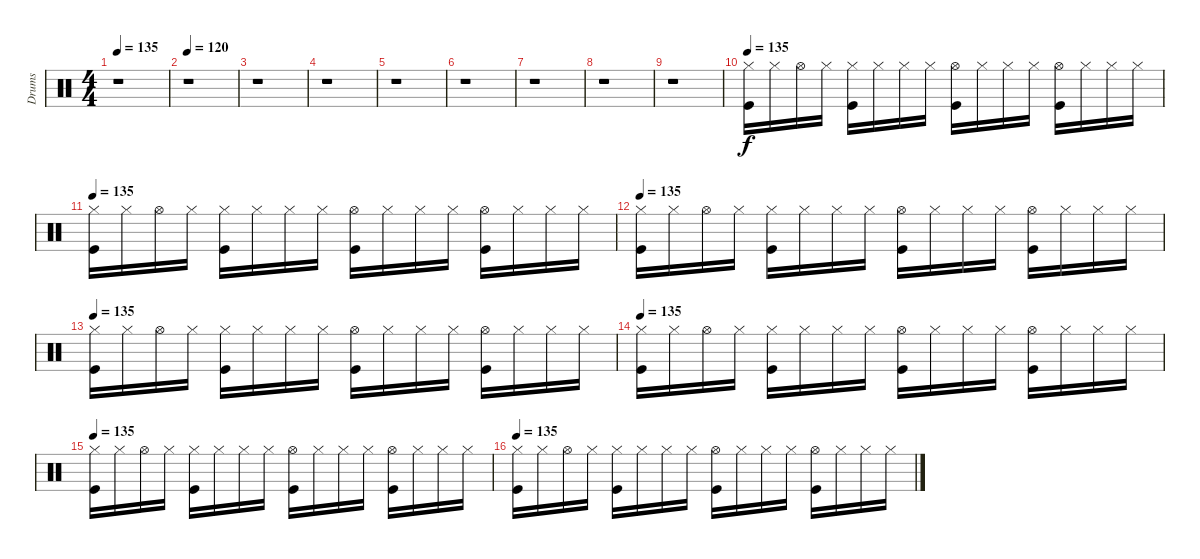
\track ("Drums" "Drums") {instrument percussion}
\staff {score}
\articulation defaults
\ts (4 4)
\tempo 135
\clef neutral
\ks c
r.1{dy f} |
\tempo 120
r.1 |
r.1 |
r.1 |
r.1 |
r.1 |
r.1 |
r.1 |
r.1 |
\tempo 135
("Hi-Hat (closed)" "Kick (hit)").16 "Hi-Hat (closed)".16 "Hi-Hat (open)".16 "Hi-Hat (closed)".16 ("Hi-Hat (closed)" "Kick (hit)").16 "Hi-Hat (closed)".16 "Hi-Hat (closed)".16 "Hi-Hat (closed)".16 ("Hi-Hat (open)" "Kick (hit)").16 "Hi-Hat (closed)".16 "Hi-Hat (closed)".16 "Hi-Hat (closed)".16 ("Hi-Hat (open)" "Kick (hit)").16 "Hi-Hat (closed)".16 "Hi-Hat (closed)".16 "Hi-Hat (closed)".16 |
\tempo 135
("Hi-Hat (closed)" "Kick (hit)").16 "Hi-Hat (closed)".16 "Hi-Hat (open)".16 "Hi-Hat (closed)".16 ("Hi-Hat (closed)" "Kick (hit)").16 "Hi-Hat (closed)".16 "Hi-Hat (closed)".16 "Hi-Hat (closed)".16 ("Hi-Hat (open)" "Kick (hit)").16 "Hi-Hat (closed)".16 "Hi-Hat (closed)".16 "Hi-Hat (closed)".16 ("Hi-Hat (open)" "Kick (hit)").16 "Hi-Hat (closed)".16 "Hi-Hat (closed)".16 "Hi-Hat (closed)".16 |
\tempo 135
("Hi-Hat (closed)" "Kick (hit)").16 "Hi-Hat (closed)".16 "Hi-Hat (open)".16 "Hi-Hat (closed)".16 ("Hi-Hat (closed)" "Kick (hit)").16 "Hi-Hat (closed)".16 "Hi-Hat (closed)".16 "Hi-Hat (closed)".16 ("Hi-Hat (open)" "Kick (hit)").16 "Hi-Hat (closed)".16 "Hi-Hat (closed)".16 "Hi-Hat (closed)".16 ("Hi-Hat (open)" "Kick (hit)").16 "Hi-Hat (closed)".16 "Hi-Hat (closed)".16 "Hi-Hat (closed)".16 |
\tempo 135
("Hi-Hat (closed)" "Kick (hit)").16 "Hi-Hat (closed)".16 "Hi-Hat (open)".16 "Hi-Hat (closed)".16 ("Hi-Hat (closed)" "Kick (hit)").16 "Hi-Hat (closed)".16 "Hi-Hat (closed)".16 "Hi-Hat (closed)".16 ("Hi-Hat (open)" "Kick (hit)").16 "Hi-Hat (closed)".16 "Hi-Hat (closed)".16 "Hi-Hat (closed)".16 ("Hi-Hat (open)" "Kick (hit)").16 "Hi-Hat (closed)".16 "Hi-Hat (closed)".16 "Hi-Hat (closed)".16 |
\tempo 135
("Hi-Hat (closed)" "Kick (hit)").16 "Hi-Hat (closed)".16 "Hi-Hat (open)".16 "Hi-Hat (closed)".16 ("Hi-Hat (closed)" "Kick (hit)").16 "Hi-Hat (closed)".16 "Hi-Hat (closed)".16 "Hi-Hat (closed)".16 ("Hi-Hat (open)" "Kick (hit)").16 "Hi-Hat (closed)".16 "Hi-Hat (closed)".16 "Hi-Hat (closed)".16 ("Hi-Hat (open)" "Kick (hit)").16 "Hi-Hat (closed)".16 "Hi-Hat (closed)".16 "Hi-Hat (closed)".16 |
\tempo 135
("Hi-Hat (closed)" "Kick (hit)").16 "Hi-Hat (closed)".16 "Hi-Hat (open)".16 "Hi-Hat (closed)".16 ("Hi-Hat (closed)" "Kick (hit)").16 "Hi-Hat (closed)".16 "Hi-Hat (closed)".16 "Hi-Hat (closed)".16 ("Hi-Hat (open)" "Kick (hit)").16 "Hi-Hat (closed)".16 "Hi-Hat (closed)".16 "Hi-Hat (closed)".16 ("Hi-Hat (open)" "Kick (hit)").16 "Hi-Hat (closed)".16 "Hi-Hat (closed)".16 "Hi-Hat (closed)".16 |
\tempo 135
("Hi-Hat (closed)" "Kick (hit)").16 "Hi-Hat (closed)".16 "Hi-Hat (open)".16 "Hi-Hat (closed)".16 ("Hi-Hat (closed)" "Kick (hit)").16 "Hi-Hat (closed)".16 "Hi-Hat (closed)".16 "Hi-Hat (closed)".16 ("Hi-Hat (open)" "Kick (hit)").16 "Hi-Hat (closed)".16 "Hi-Hat (closed)".16 "Hi-Hat (closed)".16 ("Hi-Hat (open)" "Kick (hit)").16 "Hi-Hat (closed)".16 "Hi-Hat (closed)".16 "Hi-Hat (closed)".16
